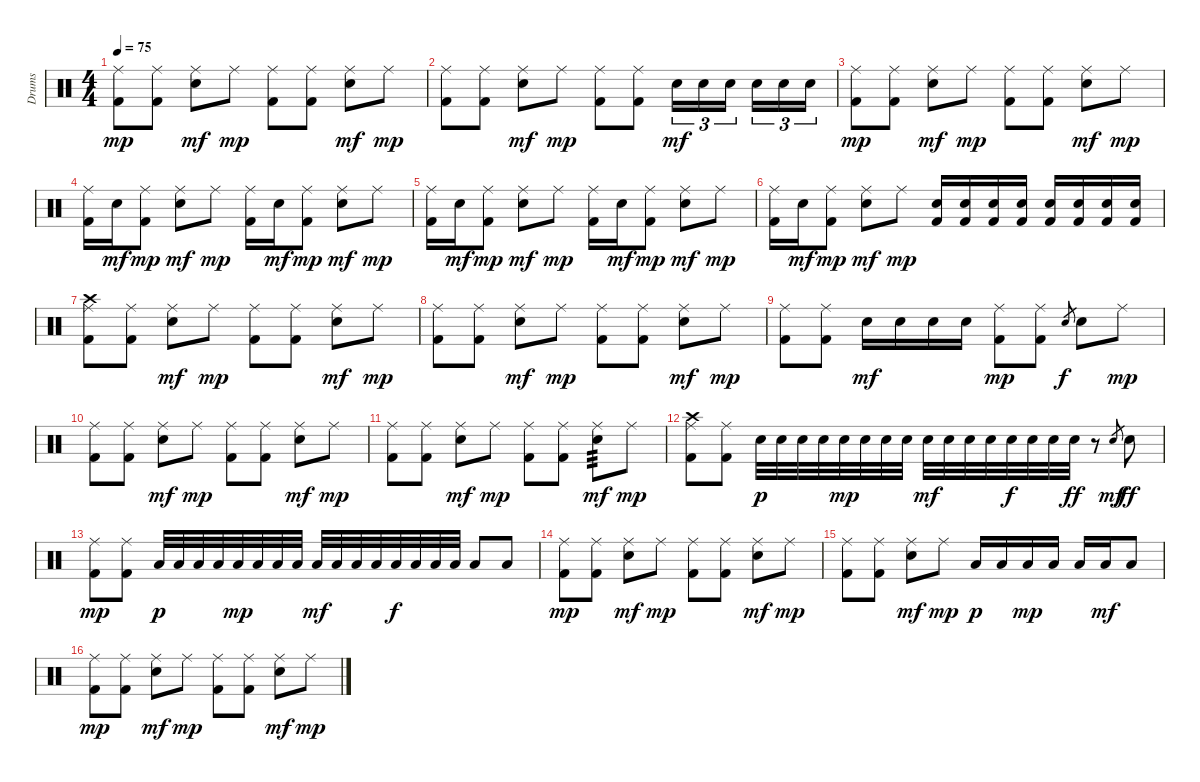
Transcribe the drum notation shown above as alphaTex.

\track ("Drums" "Drums") {instrument percussion}
\staff {score}
\articulation defaults
\ts (4 4)
\tempo 75
\clef neutral
\ks c
("Ride (middle)" "Kick (hit) 2").8{dy mp} ("Ride (middle)" "Kick (hit) 2").8 ("Ride (middle)" "Electric Snare (hit)").8{dy mf} "Ride (middle)".8{dy mp} ("Ride (middle)" "Kick (hit) 2").8 ("Ride (middle)" "Kick (hit) 2").8 ("Ride (middle)" "Electric Snare (hit)").8{dy mf} "Ride (middle)".8{dy mp} |
("Ride (middle)" "Kick (hit) 2").8 ("Ride (middle)" "Kick (hit) 2").8 ("Ride (middle)" "Electric Snare (hit)").8{dy mf} "Ride (middle)".8{dy mp} ("Ride (middle)" "Kick (hit) 2").8 ("Ride (middle)" "Kick (hit) 2").8 "Electric Snare (hit)".16{tu (3 2) dy mf} "Electric Snare (hit)".16{tu (3 2)} "Electric Snare (hit)".16{tu (3 2)} "Electric Snare (hit)".16{tu (3 2)} "Electric Snare (hit)".16{tu (3 2)} "Electric Snare (hit)".16{tu (3 2)} |
("Ride (middle)" "Kick (hit) 2").8{dy mp} ("Ride (middle)" "Kick (hit) 2").8 ("Ride (middle)" "Electric Snare (hit)").8{dy mf} "Ride (middle)".8{dy mp} ("Ride (middle)" "Kick (hit) 2").8 ("Ride (middle)" "Kick (hit) 2").8 ("Ride (middle)" "Electric Snare (hit)").8{dy mf} "Ride (middle)".8{dy mp} |
("Ride (middle)" "Kick (hit) 2").16 "Electric Snare (hit)".16{dy mf} ("Ride (middle)" "Kick (hit) 2").8{dy mp} ("Ride (middle)" "Electric Snare (hit)").8{dy mf} "Ride (middle)".8{dy mp} ("Ride (middle)" "Kick (hit) 2").16 "Electric Snare (hit)".16{dy mf} ("Ride (middle)" "Kick (hit) 2").8{dy mp} ("Ride (middle)" "Electric Snare (hit)").8{dy mf} "Ride (middle)".8{dy mp} |
("Ride (middle)" "Kick (hit) 2").16 "Electric Snare (hit)".16{dy mf} ("Ride (middle)" "Kick (hit) 2").8{dy mp} ("Ride (middle)" "Electric Snare (hit)").8{dy mf} "Ride (middle)".8{dy mp} ("Ride (middle)" "Kick (hit) 2").16 "Electric Snare (hit)".16{dy mf} ("Ride (middle)" "Kick (hit) 2").8{dy mp} ("Ride (middle)" "Electric Snare (hit)").8{dy mf} "Ride (middle)".8{dy mp} |
("Ride (middle)" "Kick (hit) 2").16 "Electric Snare (hit)".16{dy mf} ("Ride (middle)" "Kick (hit) 2").8{dy mp} ("Ride (middle)" "Electric Snare (hit)").8{dy mf} "Ride (middle)".8{dy mp} ("Electric Snare (hit)" "Kick (hit) 2").16 ("Electric Snare (hit)" "Kick (hit) 2").16 ("Electric Snare (hit)" "Kick (hit) 2").16 ("Electric Snare (hit)" "Kick (hit) 2").16 ("Electric Snare (hit)" "Kick (hit) 2").16 ("Electric Snare (hit)" "Kick (hit) 2").16 ("Electric Snare (hit)" "Kick (hit) 2").16 ("Electric Snare (hit)" "Kick (hit) 2").16 |
("Crash high (hit)" "Ride (middle)" "Kick (hit) 2").8 ("Ride (middle)" "Kick (hit) 2").8 ("Ride (middle)" "Electric Snare (hit)").8{dy mf} "Ride (middle)".8{dy mp} ("Ride (middle)" "Kick (hit) 2").8 ("Ride (middle)" "Kick (hit) 2").8 ("Ride (middle)" "Electric Snare (hit)").8{dy mf} "Ride (middle)".8{dy mp} |
("Ride (middle)" "Kick (hit) 2").8 ("Ride (middle)" "Kick (hit) 2").8 ("Ride (middle)" "Electric Snare (hit)").8{dy mf} "Ride (middle)".8{dy mp} ("Ride (middle)" "Kick (hit) 2").8 ("Ride (middle)" "Kick (hit) 2").8 ("Ride (middle)" "Electric Snare (hit)").8{dy mf} "Ride (middle)".8{dy mp} |
("Ride (middle)" "Kick (hit) 2").8 ("Ride (middle)" "Kick (hit) 2").8 "Electric Snare (hit)".16{dy mf} "Electric Snare (hit)".16 "Electric Snare (hit)".16 "Electric Snare (hit)".16 ("Ride (middle)" "Kick (hit) 2").8{dy mp} ("Ride (middle)" "Kick (hit) 2").8 "Electric Snare (hit)".8{gr dy f} "Electric Snare (hit)".8 "Ride (middle)".8{dy mp} |
("Ride (middle)" "Kick (hit) 2").8 ("Ride (middle)" "Kick (hit) 2").8 ("Ride (middle)" "Electric Snare (hit)").8{dy mf} "Ride (middle)".8{dy mp} ("Ride (middle)" "Kick (hit) 2").8 ("Ride (middle)" "Kick (hit) 2").8 ("Ride (middle)" "Electric Snare (hit)").8{dy mf} "Ride (middle)".8{dy mp} |
("Ride (middle)" "Kick (hit) 2").8 ("Ride (middle)" "Kick (hit) 2").8 ("Ride (middle)" "Electric Snare (hit)").8{dy mf} "Ride (middle)".8{dy mp} ("Ride (middle)" "Kick (hit) 2").8 ("Ride (middle)" "Kick (hit) 2").8 ("Ride (middle)" "Electric Snare (hit)").8{tp 3 dy mf} "Ride (middle)".8{dy mp} |
("Crash high (hit)" "Ride (middle)" "Kick (hit) 2").8 ("Ride (middle)" "Kick (hit) 2").8 "Electric Snare (hit)".32{dy p} "Electric Snare (hit)".32 "Electric Snare (hit)".32 "Electric Snare (hit)".32 "Electric Snare (hit)".32{dy mp} "Electric Snare (hit)".32 "Electric Snare (hit)".32 "Electric Snare (hit)".32 "Electric Snare (hit)".32{dy mf} "Electric Snare (hit)".32 "Electric Snare (hit)".32 "Electric Snare (hit)".32 "Electric Snare (hit)".32{dy f} "Electric Snare (hit)".32 "Electric Snare (hit)".32 "Electric Snare (hit)".32{dy ff} r.8 "Electric Snare (hit)".8{gr dy mf} "Electric Snare (hit)".8{dy ff} |
("Ride (middle)" "Kick (hit) 2").8{dy mp} ("Ride (middle)" "Kick (hit) 2").8 "Low Tom (hit)".32{dy p} "Low Tom (hit)".32 "Low Tom (hit)".32 "Low Tom (hit)".32 "Low Tom (hit)".32{dy mp} "Low Tom (hit)".32 "Low Tom (hit)".32 "Low Tom (hit)".32 "Low Tom (hit)".32{dy mf} "Low Tom (hit)".32 "Low Tom (hit)".32 "Low Tom (hit)".32 "Low Tom (hit)".32{dy f} "Low Tom (hit)".32 "Low Tom (hit)".32 "Low Tom (hit)".32 "Low Tom (hit)".8 "Low Tom (hit)".8 |
("Ride (middle)" "Kick (hit) 2").8{dy mp} ("Ride (middle)" "Kick (hit) 2").8 ("Ride (middle)" "Electric Snare (hit)").8{dy mf} "Ride (middle)".8{dy mp} ("Ride (middle)" "Kick (hit) 2").8 ("Ride (middle)" "Kick (hit) 2").8 ("Ride (middle)" "Electric Snare (hit)").8{dy mf} "Ride (middle)".8{dy mp} |
("Ride (middle)" "Kick (hit) 2").8 ("Ride (middle)" "Kick (hit) 2").8 ("Ride (middle)" "Electric Snare (hit)").8{dy mf} "Ride (middle)".8{dy mp} "Low Tom (hit)".16{dy p} "Low Tom (hit)".16 "Low Tom (hit)".16{dy mp} "Low Tom (hit)".16 "Low Tom (hit)".16 "Low Tom (hit)".16{dy mf} "Low Tom (hit)".8 |
("Ride (middle)" "Kick (hit) 2").8{dy mp} ("Ride (middle)" "Kick (hit) 2").8 ("Ride (middle)" "Electric Snare (hit)").8{dy mf} "Ride (middle)".8{dy mp} ("Ride (middle)" "Kick (hit) 2").8 ("Ride (middle)" "Kick (hit) 2").8 ("Ride (middle)" "Electric Snare (hit)").8{dy mf} "Ride (middle)".8{dy mp}
